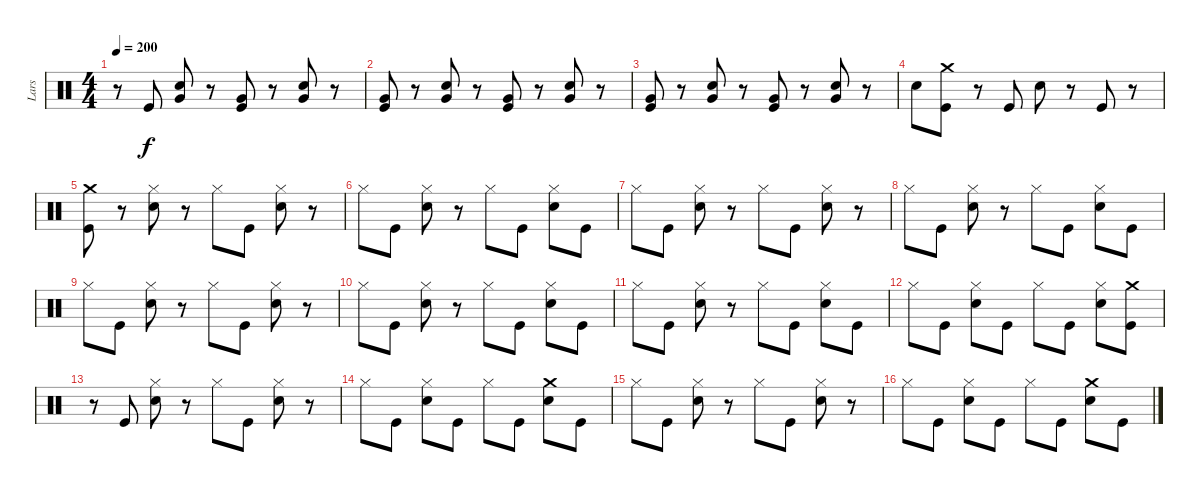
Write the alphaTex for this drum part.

\track ("Lars" "Lars") {instrument percussion}
\staff {score}
\articulation defaults
\ts (4 4)
\tempo 200
\clef neutral
\ks c
r.8{dy f} "Kick (hit)".8 ("Very Low Tom (hit)" "Snare (hit) 2").8 r.8 ("Kick (hit)" "Very Low Tom (hit)").8 r.8 ("Very Low Tom (hit)" "Snare (hit) 2").8 r.8 |
("Kick (hit)" "Very Low Tom (hit)").8 r.8 ("Very Low Tom (hit)" "Snare (hit) 2").8 r.8 ("Kick (hit)" "Very Low Tom (hit)").8 r.8 ("Very Low Tom (hit)" "Snare (hit) 2").8 r.8 |
("Very Low Tom (hit)" "Kick (hit)").8 r.8 ("Snare (hit) 2" "Very Low Tom (hit)").8 r.8 ("Very Low Tom (hit)" "Kick (hit)").8 r.8 ("Very Low Tom (hit)" "Snare (hit) 2").8 r.8 |
"Snare (hit) 2".8 ("Kick (hit)" "Crash medium (hit)").8 r.8 "Kick (hit)".8 "Snare (hit) 2".8 r.8 "Kick (hit)".8 r.8 |
("Crash medium (hit)" "Kick (hit)").8 r.8 ("Hi-Hat (closed)" "Snare (hit) 2").8 r.8 "Hi-Hat (closed)".8 "Kick (hit)".8 ("Hi-Hat (closed)" "Snare (hit) 2").8 r.8 |
"Hi-Hat (closed)".8 "Kick (hit)".8 ("Hi-Hat (closed)" "Snare (hit) 2").8 r.8 "Hi-Hat (closed)".8 "Kick (hit)".8 ("Hi-Hat (closed)" "Snare (hit) 2").8 "Kick (hit)".8 |
"Hi-Hat (closed)".8 "Kick (hit)".8 ("Hi-Hat (closed)" "Snare (hit) 2").8 r.8 "Hi-Hat (closed)".8 "Kick (hit)".8 ("Snare (hit) 2" "Hi-Hat (closed)").8 r.8 |
"Hi-Hat (closed)".8 "Kick (hit)".8 ("Hi-Hat (closed)" "Snare (hit) 2").8 r.8 "Hi-Hat (closed)".8 "Kick (hit)".8 ("Hi-Hat (closed)" "Snare (hit) 2").8 "Kick (hit)".8 |
"Hi-Hat (closed)".8 "Kick (hit)".8 ("Snare (hit) 2" "Hi-Hat (closed)").8 r.8 "Hi-Hat (closed)".8 "Kick (hit)".8 ("Hi-Hat (closed)" "Snare (hit) 2").8 r.8 |
"Hi-Hat (closed)".8 "Kick (hit)".8 ("Hi-Hat (closed)" "Snare (hit) 2").8 r.8 "Hi-Hat (closed)".8 "Kick (hit)".8 ("Hi-Hat (closed)" "Snare (hit) 2").8 "Kick (hit)".8 |
"Hi-Hat (closed)".8 "Kick (hit)".8 ("Hi-Hat (closed)" "Snare (hit) 2").8 r.8 "Hi-Hat (closed)".8 "Kick (hit)".8 ("Hi-Hat (closed)" "Snare (hit) 2").8 "Kick (hit)".8 |
"Hi-Hat (closed)".8 "Kick (hit)".8 ("Hi-Hat (closed)" "Snare (hit) 2").8 "Kick (hit)".8 "Hi-Hat (closed)".8 "Kick (hit)".8 ("Hi-Hat (closed)" "Snare (hit) 2").8 ("Crash medium (hit)" "Kick (hit)").8 |
r.8 "Kick (hit)".8 ("Hi-Hat (closed)" "Snare (hit) 2").8 r.8 "Hi-Hat (closed)".8 "Kick (hit)".8 ("Hi-Hat (closed)" "Snare (hit) 2").8 r.8 |
"Hi-Hat (closed)".8 "Kick (hit)".8 ("Hi-Hat (closed)" "Snare (hit) 2").8 "Kick (hit)".8 "Hi-Hat (closed)".8 "Kick (hit)".8 ("Crash medium (hit)" "Snare (hit) 2").8 "Kick (hit)".8 |
"Hi-Hat (closed)".8 "Kick (hit)".8 ("Hi-Hat (closed)" "Snare (hit) 2").8 r.8 "Hi-Hat (closed)".8 "Kick (hit)".8 ("Hi-Hat (closed)" "Snare (hit) 2").8 r.8 |
"Hi-Hat (closed)".8 "Kick (hit)".8 ("Snare (hit) 2" "Hi-Hat (closed)").8 "Kick (hit)".8 "Hi-Hat (closed)".8 "Kick (hit)".8 ("Crash medium (hit)" "Snare (hit) 2").8 "Kick (hit)".8
